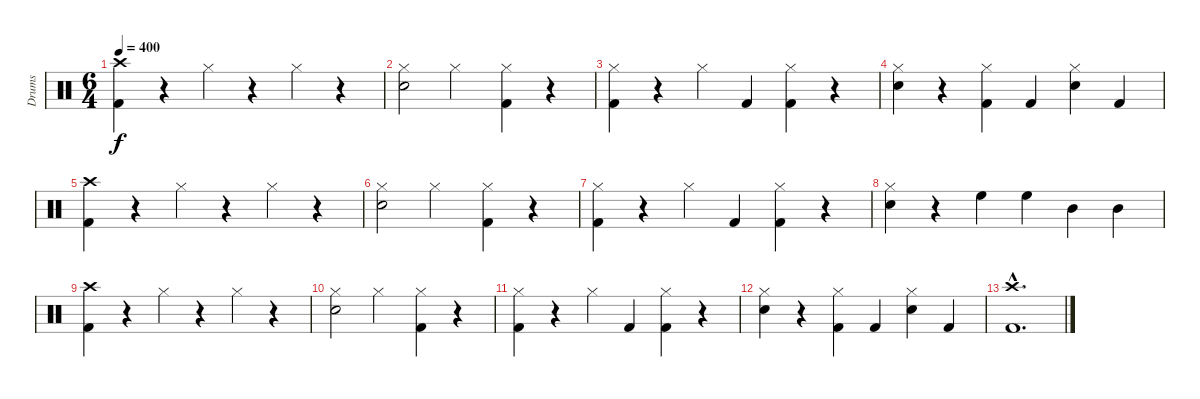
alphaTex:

\track ("Drums" "Drums") {instrument percussion}
\staff {score}
\articulation defaults
\ts (6 4)
\tempo 400
\clef neutral
\ks c
("Crash high (hit)" "Kick (hit) 2").4{dy f} r.4 "Hi-Hat (closed)".4 r.4 "Hi-Hat (closed)".4 r.4 |
("Hi-Hat (closed)" "Snare (hit) 2").2 "Hi-Hat (closed)".2 ("Hi-Hat (closed)" "Kick (hit) 2").4 r.4 |
("Hi-Hat (closed)" "Kick (hit) 2").4 r.4 "Hi-Hat (closed)".4 "Kick (hit) 2".4 ("Hi-Hat (closed)" "Kick (hit) 2").4 r.4 |
("Hi-Hat (closed)" "Snare (hit) 2").4 r.4 ("Hi-Hat (closed)" "Kick (hit) 2").4 "Kick (hit) 2".4 ("Hi-Hat (closed)" "Snare (hit) 2").4 "Kick (hit) 2".4 |
("Crash high (hit)" "Kick (hit) 2").4 r.4 "Hi-Hat (closed)".4 r.4 "Hi-Hat (closed)".4 r.4 |
("Hi-Hat (closed)" "Snare (hit) 2").2 "Hi-Hat (closed)".2 ("Hi-Hat (closed)" "Kick (hit) 2").4 r.4 |
("Hi-Hat (closed)" "Kick (hit) 2").4 r.4 "Hi-Hat (closed)".4 "Kick (hit) 2".4 ("Hi-Hat (closed)" "Kick (hit) 2").4 r.4 |
("Hi-Hat (closed)" "Snare (hit) 2").4 r.4 "High Floor Tom (hit)".4 "High Floor Tom (hit)".4 "Mid Tom (hit)".4 "Mid Tom (hit)".4 |
("Crash high (hit)" "Kick (hit) 2").4 r.4 "Hi-Hat (closed)".4 r.4 "Hi-Hat (closed)".4 r.4 |
("Hi-Hat (closed)" "Snare (hit) 2").2 "Hi-Hat (closed)".2 ("Hi-Hat (closed)" "Kick (hit) 2").4 r.4 |
("Hi-Hat (closed)" "Kick (hit) 2").4 r.4 "Hi-Hat (closed)".4 "Kick (hit) 2".4 ("Hi-Hat (closed)" "Kick (hit) 2").4 r.4 |
("Hi-Hat (closed)" "Snare (hit) 2").4 r.4 ("Hi-Hat (closed)" "Kick (hit) 2").4 "Kick (hit) 2".4 ("Hi-Hat (closed)" "Snare (hit) 2").4 "Kick (hit) 2".4 |
("Crash high (hit)"{hac} "Kick (hit) 2"{hac}).1{d}
